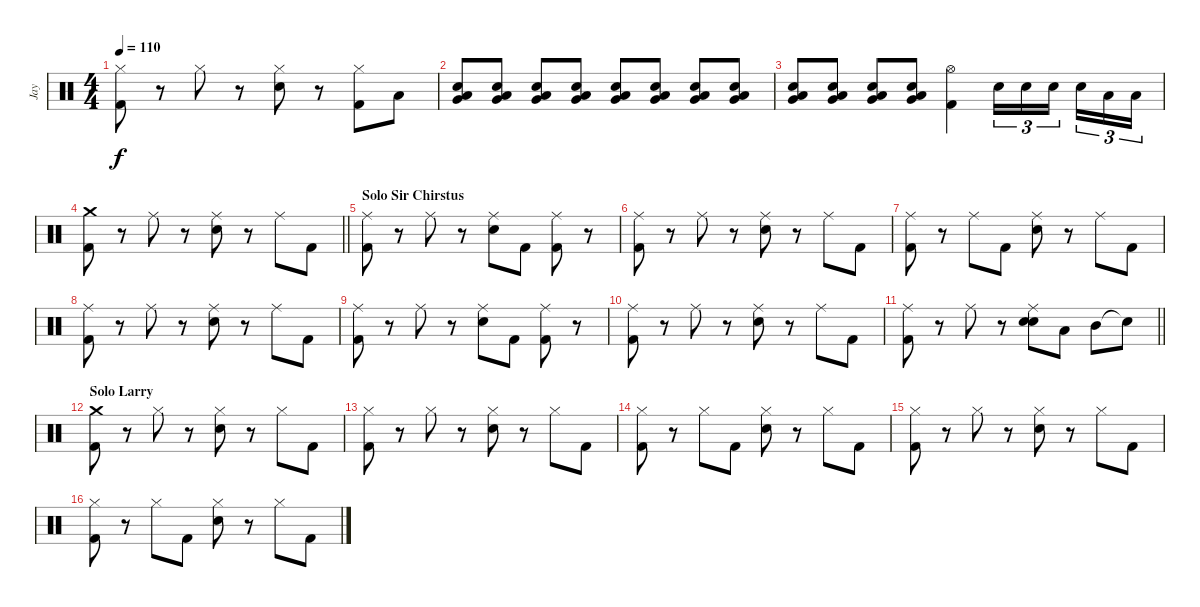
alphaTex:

\track ("Jay" "Jay") {instrument percussion}
\staff {score}
\articulation defaults
\ts (4 4)
\tempo 110
\clef neutral
\ks c
("Hi-Hat (closed)" "Kick (hit) 2").8{dy f} r.8 "Hi-Hat (closed)".8 r.8 ("Hi-Hat (closed)" "Snare (hit) 2").8 r.8 ("Hi-Hat (closed)" "Kick (hit) 2").8 "Low Tom (hit)".8 |
("Low Tom (hit)" "Very Low Tom (hit)" "Snare (hit) 2").8 ("Low Tom (hit)" "Very Low Tom (hit)" "Snare (hit) 2").8 ("Low Tom (hit)" "Very Low Tom (hit)" "Snare (hit) 2").8 ("Low Tom (hit)" "Very Low Tom (hit)" "Snare (hit) 2").8 ("Low Tom (hit)" "Very Low Tom (hit)" "Snare (hit) 2").8 ("Low Tom (hit)" "Very Low Tom (hit)" "Snare (hit) 2").8 ("Low Tom (hit)" "Very Low Tom (hit)" "Snare (hit) 2").8 ("Low Tom (hit)" "Very Low Tom (hit)" "Snare (hit) 2").8 |
("Low Tom (hit)" "Very Low Tom (hit)" "Snare (hit) 2").8 ("Low Tom (hit)" "Very Low Tom (hit)" "Snare (hit) 2").8 ("Low Tom (hit)" "Very Low Tom (hit)" "Snare (hit) 2").8 ("Low Tom (hit)" "Very Low Tom (hit)" "Snare (hit) 2").8 ("Hi-Hat (open)" "Kick (hit) 2").4 "Snare (hit) 2".16{tu (3 2)} "Snare (hit) 2".16{tu (3 2)} "Snare (hit) 2".16{tu (3 2) beam splitsecondary} "Snare (hit) 2".16{tu (3 2)} "Low Tom (hit)".16{tu (3 2)} "Low Tom (hit)".16{tu (3 2)} |
\barLineRight lightlight
("Crash medium (hit)" "Kick (hit) 2").8 r.8 "Ride (middle)".8 r.8 ("Ride (middle)" "Snare (hit) 2").8 r.8 "Ride (middle)".8 "Kick (hit) 2".8 |
\section ("" "Solo Sir Chirstus")
("Ride (middle)" "Kick (hit) 2").8 r.8 "Ride (middle)".8 r.8 ("Ride (middle)" "Snare (hit) 2").8 "Kick (hit) 2".8 ("Ride (middle)" "Kick (hit) 2").8 r.8 |
("Ride (middle)" "Kick (hit) 2").8 r.8 "Ride (middle)".8 r.8 ("Ride (middle)" "Snare (hit) 2").8 r.8 "Ride (middle)".8 "Kick (hit) 2".8 |
("Ride (middle)" "Kick (hit) 2").8 r.8 "Ride (middle)".8 "Kick (hit) 2".8 ("Ride (middle)" "Snare (hit) 2").8 r.8 "Ride (middle)".8 "Kick (hit) 2".8 |
("Ride (middle)" "Kick (hit) 2").8 r.8 "Ride (middle)".8 r.8 ("Ride (middle)" "Snare (hit) 2").8 r.8 "Ride (middle)".8 "Kick (hit) 2".8 |
("Ride (middle)" "Kick (hit) 2").8 r.8 "Ride (middle)".8 r.8 ("Ride (middle)" "Snare (hit) 2").8 "Kick (hit) 2".8 ("Ride (middle)" "Kick (hit) 2").8 r.8 |
("Ride (middle)" "Kick (hit) 2").8 r.8 "Ride (middle)".8 r.8 ("Ride (middle)" "Snare (hit) 2").8 r.8 "Ride (middle)".8 "Kick (hit) 2".8 |
\barLineRight lightlight
("Ride (middle)" "Kick (hit) 2").8 r.8 "Ride (middle)".8 r.8 ("Ride (middle)" "Snare (hit) 2" "Snare (hit) 2").8 "Low Tom (hit)".8 "Mid Tom (hit)".8 "Snare (hit)"{t}.8 |
\section ("" "Solo Larry")
("Crash medium (hit)" "Kick (hit) 2").8 r.8 "Hi-Hat (closed)".8 r.8 ("Hi-Hat (closed)" "Snare (hit) 2").8 r.8 "Hi-Hat (closed)".8 "Kick (hit) 2".8 |
("Hi-Hat (closed)" "Kick (hit) 2").8 r.8 "Hi-Hat (closed)".8 r.8 ("Hi-Hat (closed)" "Snare (hit) 2").8 r.8 "Hi-Hat (closed)".8 "Kick (hit) 2".8 |
("Hi-Hat (closed)" "Kick (hit) 2").8 r.8 "Hi-Hat (closed)".8 "Kick (hit) 2".8 ("Hi-Hat (closed)" "Snare (hit) 2").8 r.8 "Hi-Hat (closed)".8 "Kick (hit) 2".8 |
("Hi-Hat (closed)" "Kick (hit) 2").8 r.8 "Hi-Hat (closed)".8 r.8 ("Hi-Hat (closed)" "Snare (hit) 2").8 r.8 "Hi-Hat (closed)".8 "Kick (hit) 2".8 |
("Hi-Hat (closed)" "Kick (hit) 2").8 r.8 "Hi-Hat (closed)".8 "Kick (hit) 2".8 ("Hi-Hat (closed)" "Snare (hit) 2").8 r.8 "Hi-Hat (closed)".8 "Kick (hit) 2".8
